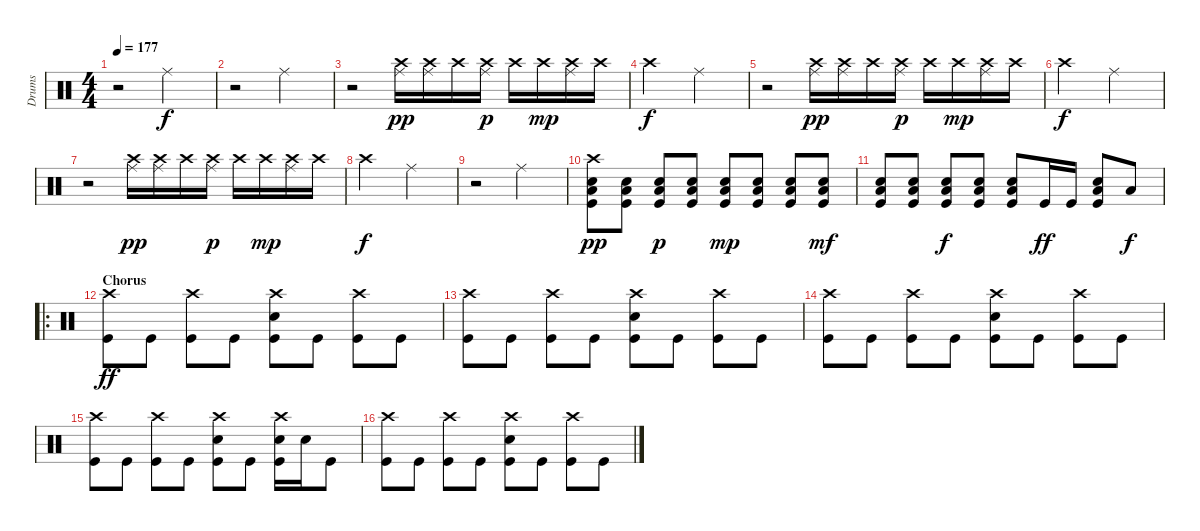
\track ("Drums" "Drums") {instrument percussion}
\staff {score}
\articulation defaults
\ts (4 4)
\tempo 177
\clef neutral
\ks c
r.2{dy f} "Ride (middle)".2 |
r.2 "Ride (middle)".2 |
r.2 ("Ride (middle)" "Crash high (hit)").16{dy pp} ("Ride (middle)" "Crash high (hit)").16 "Crash high (hit)".16 ("Ride (middle)" "Crash high (hit)").16{dy p} "Crash high (hit)".16 "Crash high (hit)".16{dy mp} ("Ride (middle)" "Crash high (hit)").16 "Crash high (hit)".16 |
"Crash high (hit)".2{dy f} "Ride (middle)".2 |
r.2 ("Ride (middle)" "Crash high (hit)").16{dy pp} ("Ride (middle)" "Crash high (hit)").16 "Crash high (hit)".16 ("Ride (middle)" "Crash high (hit)").16{dy p} "Crash high (hit)".16 "Crash high (hit)".16{dy mp} ("Ride (middle)" "Crash high (hit)").16 "Crash high (hit)".16 |
"Crash high (hit)".2{dy f} "Ride (middle)".2 |
r.2 ("Ride (middle)" "Crash high (hit)").16{dy pp} ("Ride (middle)" "Crash high (hit)").16 "Crash high (hit)".16 ("Ride (middle)" "Crash high (hit)").16{dy p} "Crash high (hit)".16 "Crash high (hit)".16{dy mp} ("Ride (middle)" "Crash high (hit)").16 "Crash high (hit)".16 |
"Crash high (hit)".2{dy f} "Ride (middle)".2 |
r.2 "Ride (middle)".2 |
("Crash high (hit)" "Electric Snare (hit)" "Low Tom (hit)" "Kick (hit)").8{dy pp} ("Electric Snare (hit)" "Low Tom (hit)" "Kick (hit)").8 ("Electric Snare (hit)" "Low Tom (hit)" "Kick (hit)").8{dy p} ("Electric Snare (hit)" "Low Tom (hit)" "Kick (hit)").8 ("Electric Snare (hit)" "Low Tom (hit)" "Kick (hit)").8{dy mp} ("Electric Snare (hit)" "Low Tom (hit)" "Kick (hit)").8 ("Electric Snare (hit)" "Low Tom (hit)" "Kick (hit)").8 ("Electric Snare (hit)" "Low Tom (hit)" "Kick (hit)").8{dy mf} |
("Electric Snare (hit)" "Low Tom (hit)" "Kick (hit)").8 ("Electric Snare (hit)" "Low Tom (hit)" "Kick (hit)").8 ("Electric Snare (hit)" "Low Tom (hit)" "Kick (hit)").8{dy f} ("Electric Snare (hit)" "Low Tom (hit)" "Kick (hit)").8 ("Electric Snare (hit)" "Low Tom (hit)" "Kick (hit)").8 "Kick (hit)".16{dy ff} "Kick (hit)".16 ("Electric Snare (hit)" "Low Tom (hit)" "Kick (hit)").8 "Low Tom (hit)".8{dy f} |
\ro
\section ("" "Chorus")
("Crash high (hit)" "Kick (hit)").8{dy ff} "Kick (hit)".8 ("Crash high (hit)" "Kick (hit)").8 "Kick (hit)".8 ("Crash high (hit)" "Electric Snare (hit)" "Kick (hit)").8 "Kick (hit)".8 ("Crash high (hit)" "Kick (hit)").8 "Kick (hit)".8 |
("Crash high (hit)" "Kick (hit)").8 "Kick (hit)".8 ("Crash high (hit)" "Kick (hit)").8 "Kick (hit)".8 ("Crash high (hit)" "Electric Snare (hit)" "Kick (hit)").8 "Kick (hit)".8 ("Crash high (hit)" "Kick (hit)").8 "Kick (hit)".8 |
("Crash high (hit)" "Kick (hit)").8 "Kick (hit)".8 ("Crash high (hit)" "Kick (hit)").8 "Kick (hit)".8 ("Crash high (hit)" "Electric Snare (hit)" "Kick (hit)").8 "Kick (hit)".8 ("Crash high (hit)" "Kick (hit)").8 "Kick (hit)".8 |
("Crash high (hit)" "Kick (hit)").8 "Kick (hit)".8 ("Crash high (hit)" "Kick (hit)").8 "Kick (hit)".8 ("Crash high (hit)" "Electric Snare (hit)" "Kick (hit)").8 "Kick (hit)".8 ("Crash high (hit)" "Electric Snare (hit)" "Kick (hit)").16 "Electric Snare (hit)".16 "Kick (hit)".8 |
("Crash high (hit)" "Kick (hit)").8 "Kick (hit)".8 ("Crash high (hit)" "Kick (hit)").8 "Kick (hit)".8 ("Crash high (hit)" "Electric Snare (hit)" "Kick (hit)").8 "Kick (hit)".8 ("Crash high (hit)" "Kick (hit)").8 "Kick (hit)".8
